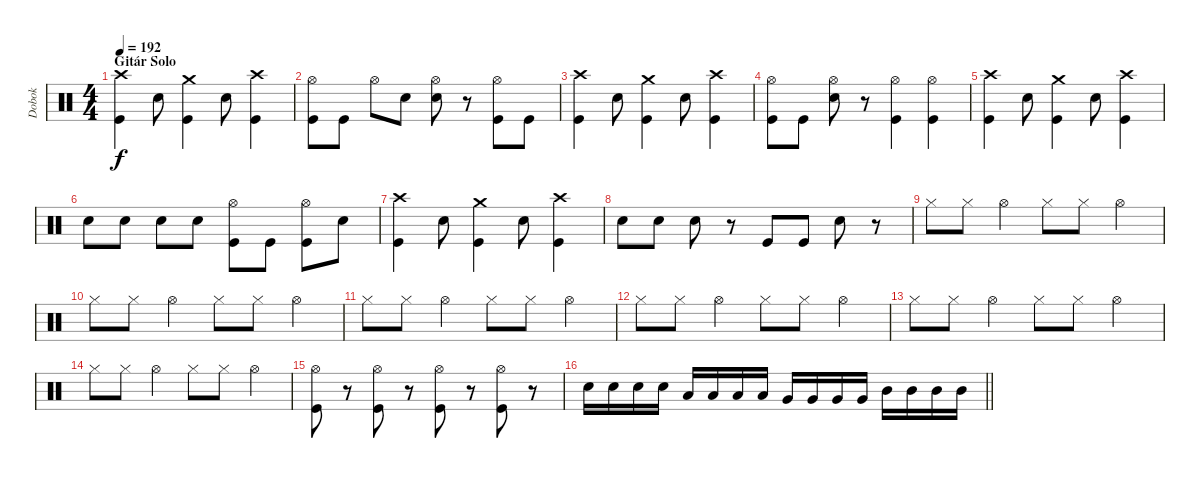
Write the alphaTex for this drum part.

\track ("Dobok" "Dobok") {instrument percussion}
\staff {score}
\articulation defaults
\ts (4 4)
\section ("" "Gitár Solo")
\tempo 192
\clef neutral
\ks c
("Crash high (hit)" "Kick (hit)").4{dy f} "Electric Snare (hit)".8 ("Crash medium (hit)" "Kick (hit)").4 "Electric Snare (hit)".8 ("Crash high (hit)" "Kick (hit)").4 |
("Hi-Hat (open)" "Kick (hit)").8 "Kick (hit)".8 "Hi-Hat (open)".8 "Electric Snare (hit)".8 ("Hi-Hat (open)" "Electric Snare (hit)").8 r.8 ("Hi-Hat (open)" "Kick (hit)").8 "Kick (hit)".8 |
("Crash high (hit)" "Kick (hit)").4 "Electric Snare (hit)".8 ("Crash medium (hit)" "Kick (hit)").4 "Electric Snare (hit)".8 ("Crash high (hit)" "Kick (hit)").4 |
("Hi-Hat (open)" "Kick (hit)").8 "Kick (hit)".8 ("Hi-Hat (open)" "Electric Snare (hit)").8 r.8 ("Hi-Hat (open)" "Kick (hit)").4 ("Hi-Hat (open)" "Kick (hit)").4 |
("Crash high (hit)" "Kick (hit)").4 "Electric Snare (hit)".8 ("Crash medium (hit)" "Kick (hit)").4 "Electric Snare (hit)".8 ("Crash high (hit)" "Kick (hit)").4 |
"Electric Snare (hit)".8 "Electric Snare (hit)".8 "Electric Snare (hit)".8 "Electric Snare (hit)".8 ("Hi-Hat (open)" "Kick (hit)").8 "Kick (hit)".8 ("Hi-Hat (open)" "Kick (hit)").8 "Electric Snare (hit)".8 |
("Crash high (hit)" "Kick (hit)").4 "Electric Snare (hit)".8 ("Crash medium (hit)" "Kick (hit)").4 "Electric Snare (hit)".8 ("Crash high (hit)" "Kick (hit)").4 |
"Electric Snare (hit)".8 "Electric Snare (hit)".8 "Electric Snare (hit)".8 r.8 "Kick (hit)".8 "Kick (hit)".8 "Electric Snare (hit)".8 r.8 |
"Hi-Hat (closed)".8 "Hi-Hat (closed)".8 "Hi-Hat (open)".4 "Hi-Hat (closed)".8 "Hi-Hat (closed)".8 "Hi-Hat (open)".4 |
"Hi-Hat (closed)".8 "Hi-Hat (closed)".8 "Hi-Hat (open)".4 "Hi-Hat (closed)".8 "Hi-Hat (closed)".8 "Hi-Hat (open)".4 |
"Hi-Hat (closed)".8 "Hi-Hat (closed)".8 "Hi-Hat (open)".4 "Hi-Hat (closed)".8 "Hi-Hat (closed)".8 "Hi-Hat (open)".4 |
"Hi-Hat (closed)".8 "Hi-Hat (closed)".8 "Hi-Hat (open)".4 "Hi-Hat (closed)".8 "Hi-Hat (closed)".8 "Hi-Hat (open)".4 |
"Hi-Hat (closed)".8 "Hi-Hat (closed)".8 "Hi-Hat (open)".4 "Hi-Hat (closed)".8 "Hi-Hat (closed)".8 "Hi-Hat (open)".4 |
"Hi-Hat (closed)".8 "Hi-Hat (closed)".8 "Hi-Hat (open)".4 "Hi-Hat (closed)".8 "Hi-Hat (closed)".8 "Hi-Hat (open)".4 |
("Hi-Hat (open)" "Kick (hit)").8 r.8 ("Hi-Hat (open)" "Kick (hit)").8 r.8 ("Hi-Hat (open)" "Kick (hit)").8 r.8 ("Hi-Hat (open)" "Kick (hit)").8 r.8 |
\barLineRight lightlight "Electric Snare (hit)".16 "Electric Snare (hit)".16 "Electric Snare (hit)".16 "Electric Snare (hit)".16 "Low Floor Tom (hit)".16 "Low Floor Tom (hit)".16 "Low Floor Tom (hit)".16 "Low Floor Tom (hit)".16 "Very Low Tom (hit)".16 "Very Low Tom (hit)".16 "Very Low Tom (hit)".16 "Very Low Tom (hit)".16 "Mid Tom (hit)".16 "Mid Tom (hit)".16 "Mid Tom (hit)".16 "Mid Tom (hit)".16
